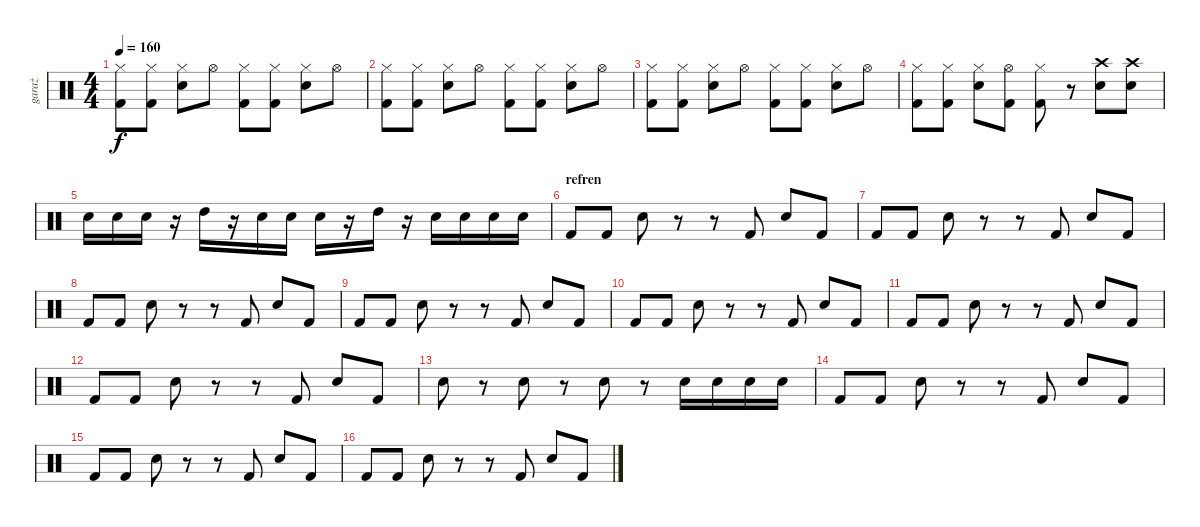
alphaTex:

\track ("garaż" "garaż") {instrument percussion}
\staff {score}
\articulation defaults
\ts (4 4)
\tempo 160
\clef neutral
\ks c
("Hi-Hat (closed)" "Kick (hit) 2").8{dy f} ("Hi-Hat (closed)" "Kick (hit) 2").8 ("Hi-Hat (closed)" "Snare (hit) 2").8 "Hi-Hat (open)".8 ("Hi-Hat (closed)" "Kick (hit) 2").8 ("Hi-Hat (closed)" "Kick (hit) 2").8 ("Hi-Hat (closed)" "Snare (hit) 2").8 "Hi-Hat (open)".8 |
("Hi-Hat (closed)" "Kick (hit) 2").8 ("Hi-Hat (closed)" "Kick (hit) 2").8 ("Hi-Hat (closed)" "Snare (hit) 2").8 "Hi-Hat (open)".8 ("Hi-Hat (closed)" "Kick (hit) 2").8 ("Hi-Hat (closed)" "Kick (hit) 2").8 ("Hi-Hat (closed)" "Snare (hit) 2").8 "Hi-Hat (open)".8 |
("Hi-Hat (closed)" "Kick (hit) 2").8 ("Hi-Hat (closed)" "Kick (hit) 2").8 ("Hi-Hat (closed)" "Snare (hit) 2").8 "Hi-Hat (open)".8 ("Hi-Hat (closed)" "Kick (hit) 2").8 ("Hi-Hat (closed)" "Kick (hit) 2").8 ("Hi-Hat (closed)" "Snare (hit) 2").8 "Hi-Hat (open)".8 |
("Hi-Hat (closed)" "Kick (hit) 2").8 ("Hi-Hat (closed)" "Kick (hit) 2").8 ("Hi-Hat (closed)" "Snare (hit) 2").8 ("Hi-Hat (open)" "Kick (hit) 2").8 ("Hi-Hat (closed)" "Kick (hit) 2").8 r.8 ("Crash high (hit)" "Snare (hit) 2").8 ("Crash high (hit)" "Snare (hit) 2").8 |
"Snare (hit) 2".16 "Snare (hit) 2".16 "Snare (hit) 2".16 r.16 "High Tom (hit)".16 r.16 "Snare (hit) 2".16 "Snare (hit) 2".16 "Snare (hit) 2".16 r.16 "High Tom (hit)".16 r.16 "Snare (hit) 2".16 "Snare (hit) 2".16 "Snare (hit) 2".16 "Snare (hit) 2".16 |
\section ("" "refren")
"Kick (hit) 2".8 "Kick (hit) 2".8 "Snare (hit) 2".8 r.8 r.8 "Kick (hit) 2".8 "Snare (hit) 2".8 "Kick (hit) 2".8 |
"Kick (hit) 2".8 "Kick (hit) 2".8 "Snare (hit) 2".8 r.8 r.8 "Kick (hit) 2".8 "Snare (hit) 2".8 "Kick (hit) 2".8 |
"Kick (hit) 2".8 "Kick (hit) 2".8 "Snare (hit) 2".8 r.8 r.8 "Kick (hit) 2".8 "Snare (hit) 2".8 "Kick (hit) 2".8 |
"Kick (hit) 2".8 "Kick (hit) 2".8 "Snare (hit) 2".8 r.8 r.8 "Kick (hit) 2".8 "Snare (hit) 2".8 "Kick (hit) 2".8 |
"Kick (hit) 2".8 "Kick (hit) 2".8 "Snare (hit) 2".8 r.8 r.8 "Kick (hit) 2".8 "Snare (hit) 2".8 "Kick (hit) 2".8 |
"Kick (hit) 2".8 "Kick (hit) 2".8 "Snare (hit) 2".8 r.8 r.8 "Kick (hit) 2".8 "Snare (hit) 2".8 "Kick (hit) 2".8 |
"Kick (hit) 2".8 "Kick (hit) 2".8 "Snare (hit) 2".8 r.8 r.8 "Kick (hit) 2".8 "Snare (hit) 2".8 "Kick (hit) 2".8 |
"Snare (hit) 2".8 r.8 "Snare (hit) 2".8 r.8 "Snare (hit) 2".8 r.8 "Snare (hit) 2".16 "Snare (hit) 2".16 "Snare (hit) 2".16 "Snare (hit) 2".16 |
"Kick (hit) 2".8 "Kick (hit) 2".8 "Snare (hit) 2".8 r.8 r.8 "Kick (hit) 2".8 "Snare (hit) 2".8 "Kick (hit) 2".8 |
"Kick (hit) 2".8 "Kick (hit) 2".8 "Snare (hit) 2".8 r.8 r.8 "Kick (hit) 2".8 "Snare (hit) 2".8 "Kick (hit) 2".8 |
"Kick (hit) 2".8 "Kick (hit) 2".8 "Snare (hit) 2".8 r.8 r.8 "Kick (hit) 2".8 "Snare (hit) 2".8 "Kick (hit) 2".8
